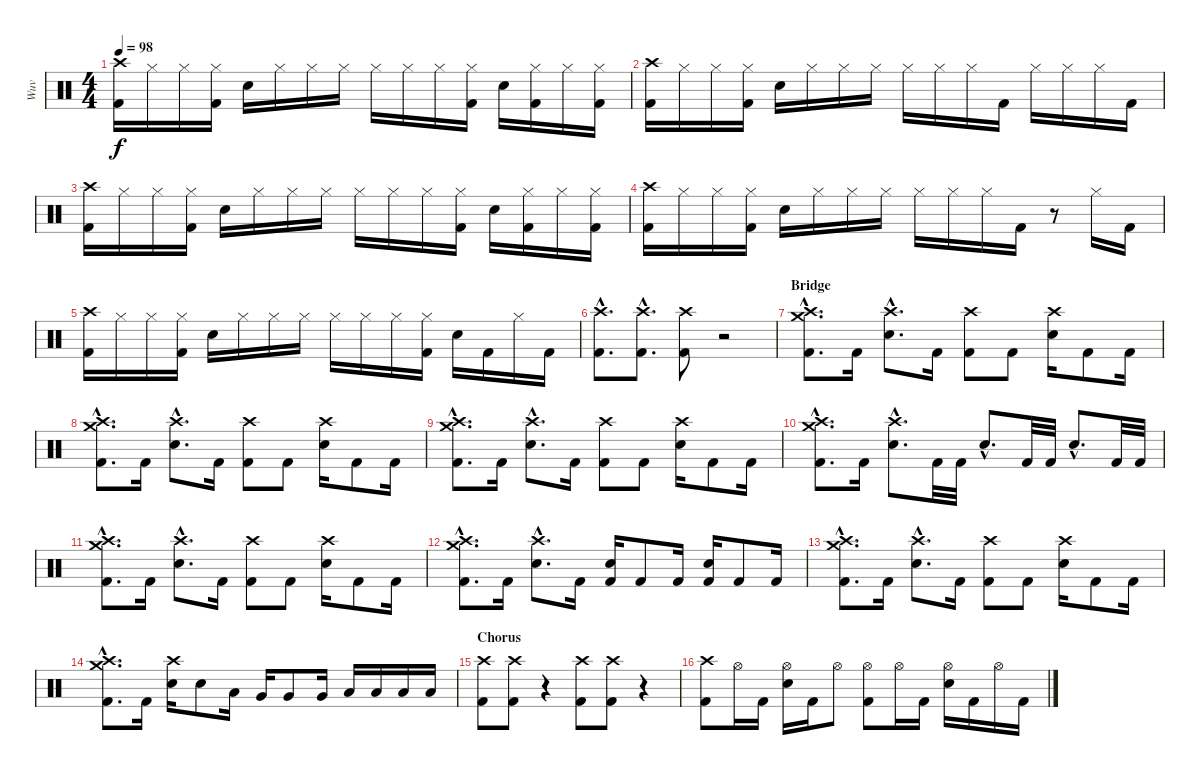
\track ("Wuv" "Wuv") {instrument percussion}
\staff {score}
\articulation defaults
\ts (4 4)
\tempo 98
\clef neutral
\ks c
("Crash high (hit)" "Kick (hit) 2").16{dy f} "Hi-Hat (closed)".16 "Hi-Hat (closed)".16 ("Hi-Hat (closed)" "Kick (hit) 2").16 "Electric Snare (hit)".16 "Hi-Hat (closed)".16 "Hi-Hat (closed)".16 "Hi-Hat (closed)".16 "Hi-Hat (closed)".16 "Hi-Hat (closed)".16 "Hi-Hat (closed)".16 ("Hi-Hat (closed)" "Kick (hit) 2").16 "Electric Snare (hit)".16 ("Hi-Hat (closed)" "Kick (hit) 2").16 "Hi-Hat (closed)".16 ("Hi-Hat (closed)" "Kick (hit) 2").16 |
("Crash high (hit)" "Kick (hit) 2").16 "Hi-Hat (closed)".16 "Hi-Hat (closed)".16 ("Hi-Hat (closed)" "Kick (hit) 2").16 "Electric Snare (hit)".16 "Hi-Hat (closed)".16 "Hi-Hat (closed)".16 "Hi-Hat (closed)".16 "Hi-Hat (closed)".16 "Hi-Hat (closed)".16 "Hi-Hat (closed)".16 "Kick (hit) 2".16 "Hi-Hat (closed)".16 "Hi-Hat (closed)".16 "Hi-Hat (closed)".16 "Kick (hit) 2".16 |
("Crash high (hit)" "Kick (hit) 2").16 "Hi-Hat (closed)".16 "Hi-Hat (closed)".16 ("Hi-Hat (closed)" "Kick (hit) 2").16 "Electric Snare (hit)".16 "Hi-Hat (closed)".16 "Hi-Hat (closed)".16 "Hi-Hat (closed)".16 "Hi-Hat (closed)".16 "Hi-Hat (closed)".16 "Hi-Hat (closed)".16 ("Hi-Hat (closed)" "Kick (hit) 2").16 "Electric Snare (hit)".16 ("Hi-Hat (closed)" "Kick (hit) 2").16 "Hi-Hat (closed)".16 ("Hi-Hat (closed)" "Kick (hit) 2").16 |
("Crash high (hit)" "Kick (hit) 2").16 "Hi-Hat (closed)".16 "Hi-Hat (closed)".16 ("Hi-Hat (closed)" "Kick (hit) 2").16 "Electric Snare (hit)".16 "Hi-Hat (closed)".16 "Hi-Hat (closed)".16 "Hi-Hat (closed)".16 "Hi-Hat (closed)".16 "Hi-Hat (closed)".16 "Hi-Hat (closed)".16 "Kick (hit) 2".16 r.8 "Hi-Hat (closed)".16 "Kick (hit) 2".16 |
("Crash high (hit)" "Kick (hit) 2").16 "Hi-Hat (closed)".16 "Hi-Hat (closed)".16 ("Hi-Hat (closed)" "Kick (hit) 2").16 "Electric Snare (hit)".16 "Hi-Hat (closed)".16 "Hi-Hat (closed)".16 "Hi-Hat (closed)".16 "Hi-Hat (closed)".16 "Hi-Hat (closed)".16 "Hi-Hat (closed)".16 ("Hi-Hat (closed)" "Kick (hit) 2").16 "Electric Snare (hit)".16 "Kick (hit) 2".16 "Hi-Hat (closed)".16 "Kick (hit) 2".16 |
("Crash high (hit)"{hac} "Kick (hit) 2"{hac}).8{d} ("Crash high (hit)"{hac} "Kick (hit) 2"{hac}).8{d} ("Crash high (hit)" "Kick (hit) 2").8 r.2 |
\section ("" "Bridge")
("Crash high (hit)"{hac} "Crash medium (hit)"{hac} "Kick (hit) 2"{hac}).8{d} "Kick (hit) 2".16 ("Crash high (hit)"{hac} "Electric Snare (hit)"{hac}).8{d} "Kick (hit) 2".16 ("Crash high (hit)" "Kick (hit) 2").8 "Kick (hit) 2".8 ("Crash high (hit)" "Electric Snare (hit)").16 "Kick (hit) 2".8 "Kick (hit) 2".16 |
("Crash high (hit)"{hac} "Crash medium (hit)"{hac} "Kick (hit) 2"{hac}).8{d} "Kick (hit) 2".16 ("Crash high (hit)"{hac} "Electric Snare (hit)"{hac}).8{d} "Kick (hit) 2".16 ("Crash high (hit)" "Kick (hit) 2").8 "Kick (hit) 2".8 ("Crash high (hit)" "Electric Snare (hit)").16 "Kick (hit) 2".8 "Kick (hit) 2".16 |
("Crash high (hit)"{hac} "Crash medium (hit)"{hac} "Kick (hit) 2"{hac}).8{d} "Kick (hit) 2".16 ("Crash high (hit)"{hac} "Electric Snare (hit)"{hac}).8{d} "Kick (hit) 2".16 ("Crash high (hit)" "Kick (hit) 2").8 "Kick (hit) 2".8 ("Crash high (hit)" "Electric Snare (hit)").16 "Kick (hit) 2".8 "Kick (hit) 2".16 |
("Crash high (hit)"{hac} "Crash medium (hit)"{hac} "Kick (hit) 2"{hac}).8{d} "Kick (hit) 2".16 ("Crash high (hit)"{hac} "Electric Snare (hit)"{hac}).8{d} "Kick (hit) 2".32 "Kick (hit) 2".32 "Electric Snare (hit)"{hac}.8{d} "Kick (hit) 2".32 "Kick (hit) 2".32 "Electric Snare (hit)"{hac}.8{d} "Kick (hit) 2".32 "Kick (hit) 2".32 |
("Crash high (hit)"{hac} "Crash medium (hit)"{hac} "Kick (hit) 2"{hac}).8{d} "Kick (hit) 2".16 ("Crash high (hit)"{hac} "Electric Snare (hit)"{hac}).8{d} "Kick (hit) 2".16 ("Crash high (hit)" "Kick (hit) 2").8 "Kick (hit) 2".8 ("Crash high (hit)" "Electric Snare (hit)").16 "Kick (hit) 2".8 "Kick (hit) 2".16 |
("Crash high (hit)"{hac} "Crash medium (hit)"{hac} "Kick (hit) 2"{hac}).8{d} "Kick (hit) 2".16 ("Crash high (hit)"{hac} "Electric Snare (hit)"{hac}).8{d} "Kick (hit) 2".16 ("Electric Snare (hit)" "Kick (hit) 2").16 "Kick (hit) 2".8 "Kick (hit) 2".16 ("Electric Snare (hit)" "Kick (hit) 2").16 "Kick (hit) 2".8 "Kick (hit) 2".16 |
("Crash high (hit)"{hac} "Crash medium (hit)"{hac} "Kick (hit) 2"{hac}).8{d} "Kick (hit) 2".16 ("Crash high (hit)"{hac} "Electric Snare (hit)"{hac}).8{d} "Kick (hit) 2".16 ("Crash high (hit)" "Kick (hit) 2").8 "Kick (hit) 2".8 ("Crash high (hit)" "Electric Snare (hit)").16 "Kick (hit) 2".8 "Kick (hit) 2".16 |
("Crash high (hit)"{hac} "Crash medium (hit)"{hac} "Kick (hit) 2"{hac}).8{d} "Kick (hit) 2".16 ("Crash high (hit)" "Electric Snare (hit)").16 "Electric Snare (hit)".8 "Low Tom (hit)".16 "Very Low Tom (hit)".16 "Very Low Tom (hit)".8 "Very Low Tom (hit)".16 "Low Floor Tom (hit)".16 "Low Floor Tom (hit)".16 "Low Floor Tom (hit)".16 "Low Floor Tom (hit)".16 |
\section ("" "Chorus")
("Crash high (hit)" "Kick (hit) 2").8 ("Crash high (hit)" "Kick (hit) 2").8 r.4{volume 0} ("Crash high (hit)" "Kick (hit) 2").8{volume 16} ("Crash high (hit)" "Kick (hit) 2").8 r.4{volume 0} |
("Crash high (hit)" "Kick (hit) 2").8{volume 16} "Hi-Hat (open)".16 "Kick (hit) 2".16 ("Hi-Hat (open)" "Electric Snare (hit)").16 "Kick (hit) 2".16 "Hi-Hat (open)".8 ("Hi-Hat (open)" "Kick (hit) 2").8 "Hi-Hat (open)".16 "Kick (hit) 2".16 ("Hi-Hat (open)" "Electric Snare (hit)").16 "Kick (hit) 2".16 "Hi-Hat (open)".16 "Kick (hit) 2".16
